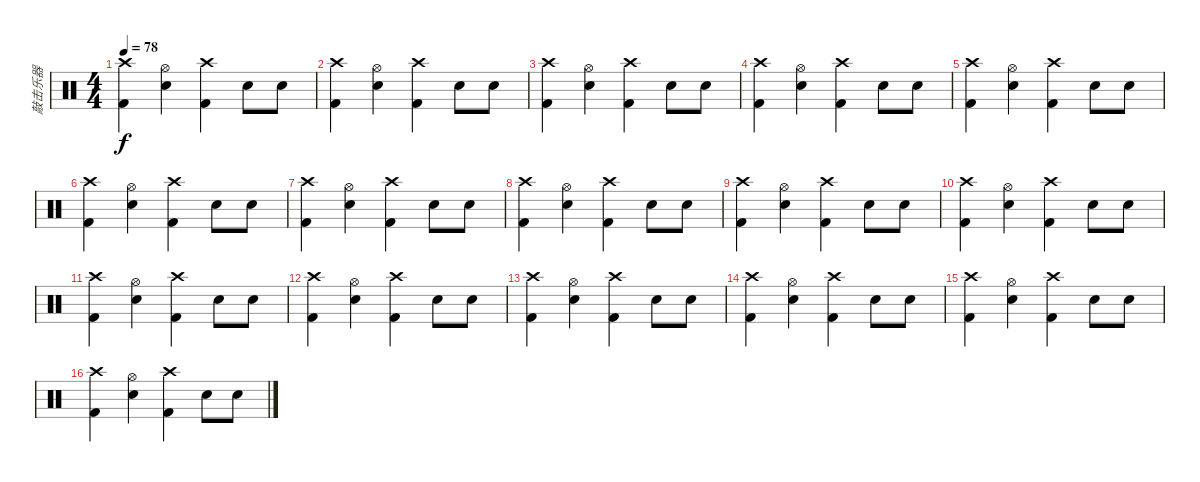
\track ("敲击乐器" "敲击乐器") {instrument percussion}
\staff {score}
\articulation defaults
\ts (4 4)
\tempo 78
\clef neutral
\ks c
("Crash high (hit)" "Kick (hit) 2").4{dy f} ("Hi-Hat (open)" "Electric Snare (hit)").4 ("Crash high (hit)" "Kick (hit) 2").4 "Electric Snare (hit)".8 "Electric Snare (hit)".8 |
("Crash high (hit)" "Kick (hit) 2").4 ("Hi-Hat (open)" "Electric Snare (hit)").4 ("Crash high (hit)" "Kick (hit) 2").4 "Electric Snare (hit)".8 "Electric Snare (hit)".8 |
("Crash high (hit)" "Kick (hit) 2").4 ("Hi-Hat (open)" "Electric Snare (hit)").4 ("Crash high (hit)" "Kick (hit) 2").4 "Electric Snare (hit)".8 "Electric Snare (hit)".8 |
("Crash high (hit)" "Kick (hit) 2").4 ("Hi-Hat (open)" "Electric Snare (hit)").4 ("Crash high (hit)" "Kick (hit) 2").4 "Electric Snare (hit)".8 "Electric Snare (hit)".8 |
("Crash high (hit)" "Kick (hit) 2").4 ("Hi-Hat (open)" "Electric Snare (hit)").4 ("Crash high (hit)" "Kick (hit) 2").4 "Electric Snare (hit)".8 "Electric Snare (hit)".8 |
("Crash high (hit)" "Kick (hit) 2").4 ("Hi-Hat (open)" "Electric Snare (hit)").4 ("Crash high (hit)" "Kick (hit) 2").4 "Electric Snare (hit)".8 "Electric Snare (hit)".8 |
("Crash high (hit)" "Kick (hit) 2").4 ("Hi-Hat (open)" "Electric Snare (hit)").4 ("Crash high (hit)" "Kick (hit) 2").4 "Electric Snare (hit)".8 "Electric Snare (hit)".8 |
("Crash high (hit)" "Kick (hit) 2").4 ("Hi-Hat (open)" "Electric Snare (hit)").4 ("Crash high (hit)" "Kick (hit) 2").4 "Electric Snare (hit)".8 "Electric Snare (hit)".8 |
("Crash high (hit)" "Kick (hit) 2").4 ("Hi-Hat (open)" "Electric Snare (hit)").4 ("Crash high (hit)" "Kick (hit) 2").4 "Electric Snare (hit)".8 "Electric Snare (hit)".8 |
("Crash high (hit)" "Kick (hit) 2").4 ("Hi-Hat (open)" "Electric Snare (hit)").4 ("Crash high (hit)" "Kick (hit) 2").4 "Electric Snare (hit)".8 "Electric Snare (hit)".8 |
("Crash high (hit)" "Kick (hit) 2").4 ("Hi-Hat (open)" "Electric Snare (hit)").4 ("Crash high (hit)" "Kick (hit) 2").4 "Electric Snare (hit)".8 "Electric Snare (hit)".8 |
("Crash high (hit)" "Kick (hit) 2").4 ("Hi-Hat (open)" "Electric Snare (hit)").4 ("Crash high (hit)" "Kick (hit) 2").4 "Electric Snare (hit)".8 "Electric Snare (hit)".8 |
("Crash high (hit)" "Kick (hit) 2").4 ("Hi-Hat (open)" "Electric Snare (hit)").4 ("Crash high (hit)" "Kick (hit) 2").4 "Electric Snare (hit)".8 "Electric Snare (hit)".8 |
("Crash high (hit)" "Kick (hit) 2").4 ("Hi-Hat (open)" "Electric Snare (hit)").4 ("Crash high (hit)" "Kick (hit) 2").4 "Electric Snare (hit)".8 "Electric Snare (hit)".8 |
("Crash high (hit)" "Kick (hit) 2").4 ("Hi-Hat (open)" "Electric Snare (hit)").4 ("Crash high (hit)" "Kick (hit) 2").4 "Electric Snare (hit)".8 "Electric Snare (hit)".8 |
("Crash high (hit)" "Kick (hit) 2").4 ("Hi-Hat (open)" "Electric Snare (hit)").4 ("Crash high (hit)" "Kick (hit) 2").4 "Electric Snare (hit)".8 "Electric Snare (hit)".8
